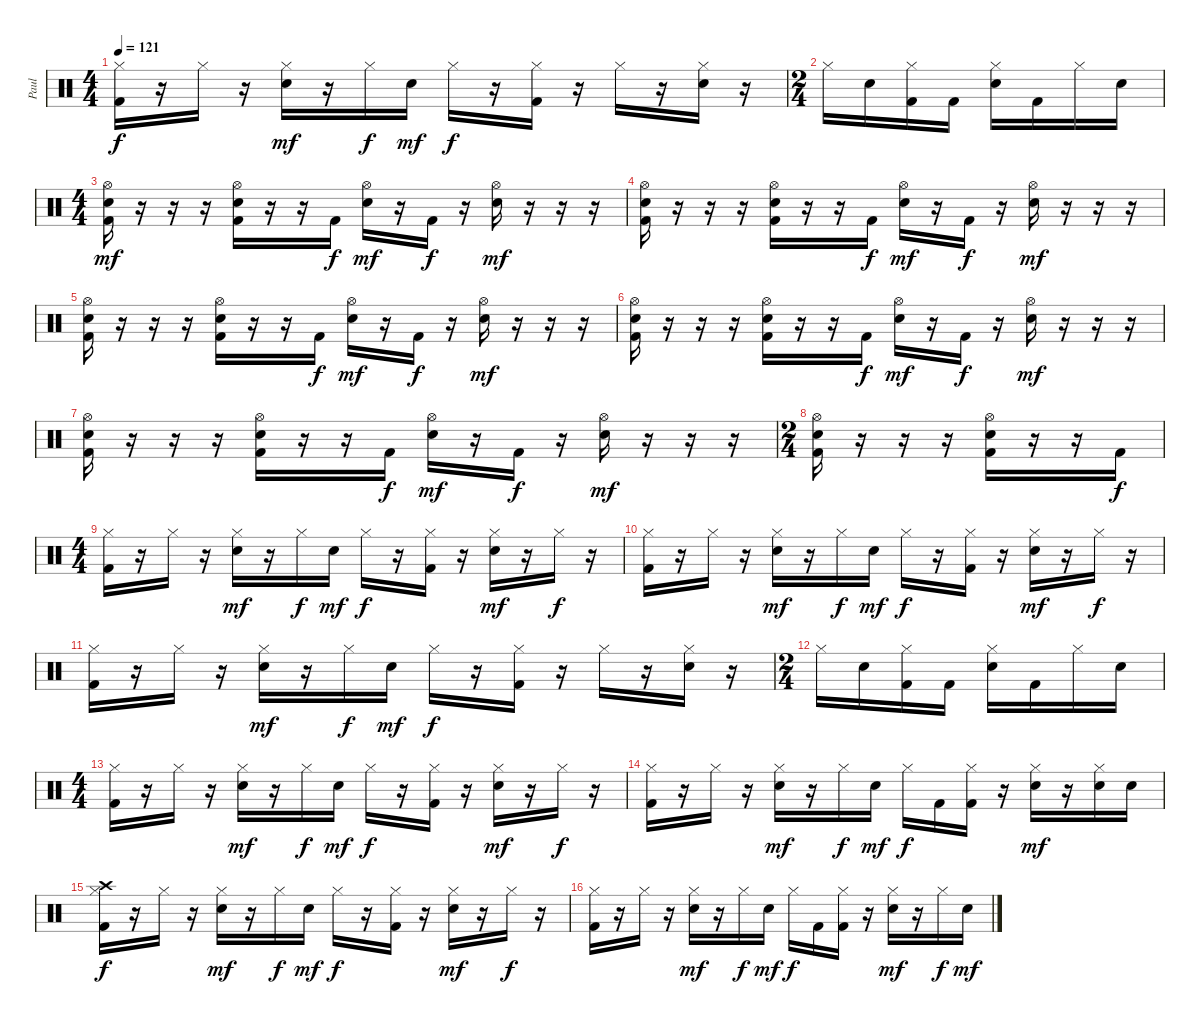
\track ("Paul" "Paul") {instrument percussion}
\staff {score}
\articulation defaults
\ts (4 4)
\tempo 121
\clef neutral
\ks c
("Hi-Hat (closed)" "Kick (hit) 2").16{dy f} r.16 "Hi-Hat (closed)".16 r.16 ("Hi-Hat (closed)" "Snare (hit) 2").16{dy mf} r.16 "Hi-Hat (closed)".16{dy f} "Snare (hit) 2".16{dy mf} "Hi-Hat (closed)".16{dy f} r.16 ("Hi-Hat (closed)" "Kick (hit) 2").16 r.16 "Hi-Hat (closed)".16 r.16 ("Hi-Hat (closed)" "Snare (hit) 2").16 r.16 |
\ts (2 4)
"Hi-Hat (closed)".16 "Snare (hit) 2".16 ("Hi-Hat (closed)" "Kick (hit) 2").16 "Kick (hit) 2".16 ("Hi-Hat (closed)" "Snare (hit) 2").16 "Kick (hit) 2".16 "Hi-Hat (closed)".16 "Snare (hit) 2".16 |
\ts (4 4)
("Hi-Hat (open)" "Snare (hit) 2" "Kick (hit) 2").16{dy mf} r.16 r.16 r.16 ("Hi-Hat (open)" "Snare (hit) 2" "Kick (hit) 2").16 r.16 r.16 "Kick (hit) 2".16{dy f} ("Hi-Hat (open)" "Snare (hit) 2").16{dy mf} r.16 "Kick (hit) 2".16{dy f} r.16 ("Hi-Hat (open)" "Snare (hit) 2").16{dy mf} r.16 r.16 r.16 |
("Hi-Hat (open)" "Snare (hit) 2" "Kick (hit) 2").16 r.16 r.16 r.16 ("Hi-Hat (open)" "Snare (hit) 2" "Kick (hit) 2").16 r.16 r.16 "Kick (hit) 2".16{dy f} ("Hi-Hat (open)" "Snare (hit) 2").16{dy mf} r.16 "Kick (hit) 2".16{dy f} r.16 ("Hi-Hat (open)" "Snare (hit) 2").16{dy mf} r.16 r.16 r.16 |
("Hi-Hat (open)" "Snare (hit) 2" "Kick (hit) 2").16 r.16 r.16 r.16 ("Hi-Hat (open)" "Snare (hit) 2" "Kick (hit) 2").16 r.16 r.16 "Kick (hit) 2".16{dy f} ("Hi-Hat (open)" "Snare (hit) 2").16{dy mf} r.16 "Kick (hit) 2".16{dy f} r.16 ("Hi-Hat (open)" "Snare (hit) 2").16{dy mf} r.16 r.16 r.16 |
("Hi-Hat (open)" "Snare (hit) 2" "Kick (hit) 2").16 r.16 r.16 r.16 ("Hi-Hat (open)" "Snare (hit) 2" "Kick (hit) 2").16 r.16 r.16 "Kick (hit) 2".16{dy f} ("Hi-Hat (open)" "Snare (hit) 2").16{dy mf} r.16 "Kick (hit) 2".16{dy f} r.16 ("Hi-Hat (open)" "Snare (hit) 2").16{dy mf} r.16 r.16 r.16 |
("Hi-Hat (open)" "Snare (hit) 2" "Kick (hit) 2").16 r.16 r.16 r.16 ("Hi-Hat (open)" "Snare (hit) 2" "Kick (hit) 2").16 r.16 r.16 "Kick (hit) 2".16{dy f} ("Hi-Hat (open)" "Snare (hit) 2").16{dy mf} r.16 "Kick (hit) 2".16{dy f} r.16 ("Hi-Hat (open)" "Snare (hit) 2").16{dy mf} r.16 r.16 r.16 |
\ts (2 4)
("Hi-Hat (open)" "Snare (hit) 2" "Kick (hit) 2").16 r.16 r.16 r.16 ("Hi-Hat (open)" "Snare (hit) 2" "Kick (hit) 2").16 r.16 r.16 "Kick (hit) 2".16{dy f} |
\ts (4 4)
("Hi-Hat (closed)" "Kick (hit) 2").16 r.16 "Hi-Hat (closed)".16 r.16 ("Hi-Hat (closed)" "Snare (hit) 2").16{dy mf} r.16 "Hi-Hat (closed)".16{dy f} "Snare (hit) 2".16{dy mf} "Hi-Hat (closed)".16{dy f} r.16 ("Hi-Hat (closed)" "Kick (hit) 2").16 r.16 ("Hi-Hat (closed)" "Snare (hit) 2").16{dy mf} r.16 "Hi-Hat (closed)".16{dy f} r.16 |
("Hi-Hat (closed)" "Kick (hit) 2").16 r.16 "Hi-Hat (closed)".16 r.16 ("Hi-Hat (closed)" "Snare (hit) 2").16{dy mf} r.16 "Hi-Hat (closed)".16{dy f} "Snare (hit) 2".16{dy mf} "Hi-Hat (closed)".16{dy f} r.16 ("Hi-Hat (closed)" "Kick (hit) 2").16 r.16 ("Hi-Hat (closed)" "Snare (hit) 2").16{dy mf} r.16 "Hi-Hat (closed)".16{dy f} r.16 |
("Hi-Hat (closed)" "Kick (hit) 2").16 r.16 "Hi-Hat (closed)".16 r.16 ("Hi-Hat (closed)" "Snare (hit) 2").16{dy mf} r.16 "Hi-Hat (closed)".16{dy f} "Snare (hit) 2".16{dy mf} "Hi-Hat (closed)".16{dy f} r.16 ("Hi-Hat (closed)" "Kick (hit) 2").16 r.16 "Hi-Hat (closed)".16 r.16 ("Hi-Hat (closed)" "Snare (hit) 2").16 r.16 |
\ts (2 4)
"Hi-Hat (closed)".16 "Snare (hit) 2".16 ("Hi-Hat (closed)" "Kick (hit) 2").16 "Kick (hit) 2".16 ("Hi-Hat (closed)" "Snare (hit) 2").16 "Kick (hit) 2".16 "Hi-Hat (closed)".16 "Snare (hit) 2".16 |
\ts (4 4)
("Hi-Hat (closed)" "Kick (hit) 2").16 r.16 "Hi-Hat (closed)".16 r.16 ("Hi-Hat (closed)" "Snare (hit) 2").16{dy mf} r.16 "Hi-Hat (closed)".16{dy f} "Snare (hit) 2".16{dy mf} "Hi-Hat (closed)".16{dy f} r.16 ("Hi-Hat (closed)" "Kick (hit) 2").16 r.16 ("Hi-Hat (closed)" "Snare (hit) 2").16{dy mf} r.16 "Hi-Hat (closed)".16{dy f} r.16 |
("Hi-Hat (closed)" "Kick (hit) 2").16 r.16 "Hi-Hat (closed)".16 r.16 ("Hi-Hat (closed)" "Snare (hit) 2").16{dy mf} r.16 "Hi-Hat (closed)".16{dy f} "Snare (hit) 2".16{dy mf} "Hi-Hat (closed)".16{dy f} "Kick (hit) 2".16 ("Hi-Hat (closed)" "Kick (hit) 2").16 r.16 ("Hi-Hat (closed)" "Snare (hit) 2").16{dy mf} r.16 ("Hi-Hat (closed)" "Snare (hit) 2").16 "Snare (hit) 2".16 |
("Hi-Hat (closed)" "Crash high (hit)" "Kick (hit) 2").16{dy f} r.16 "Hi-Hat (closed)".16 r.16 ("Hi-Hat (closed)" "Snare (hit) 2").16{dy mf} r.16 "Hi-Hat (closed)".16{dy f} "Snare (hit) 2".16{dy mf} "Hi-Hat (closed)".16{dy f} r.16 ("Hi-Hat (closed)" "Kick (hit) 2").16 r.16 ("Hi-Hat (closed)" "Snare (hit) 2").16{dy mf} r.16 "Hi-Hat (closed)".16{dy f} r.16 |
("Hi-Hat (closed)" "Kick (hit) 2").16 r.16 "Hi-Hat (closed)".16 r.16 ("Hi-Hat (closed)" "Snare (hit) 2").16{dy mf} r.16 "Hi-Hat (closed)".16{dy f} "Snare (hit) 2".16{dy mf} "Hi-Hat (closed)".16{dy f} "Kick (hit) 2".16 ("Hi-Hat (closed)" "Kick (hit) 2").16 r.16 ("Hi-Hat (closed)" "Snare (hit) 2").16{dy mf} r.16 "Hi-Hat (closed)".16{dy f} "Snare (hit) 2".16{dy mf}
